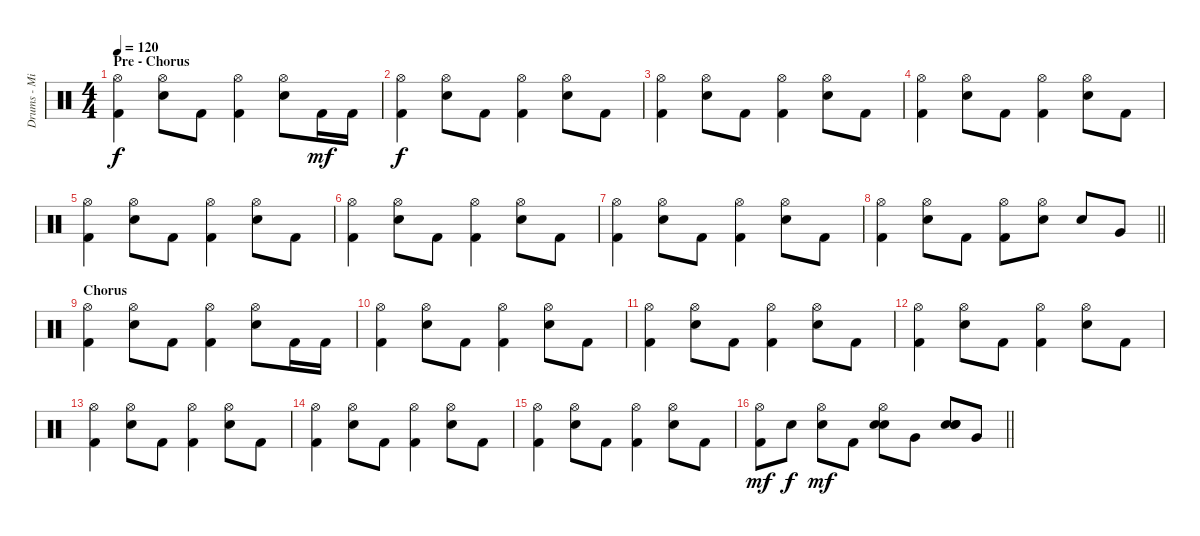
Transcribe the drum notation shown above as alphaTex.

\track ("Drums - Mikko" "Drums - Mi") {instrument percussion}
\staff {score}
\articulation defaults
\ts (4 4)
\section ("" "Pre - Chorus")
\tempo 120
\clef neutral
\ks c
("Hi-Hat (open)" "Kick (hit) 2").4{dy f volume 14} ("Hi-Hat (open)" "Snare (hit) 2").8 "Kick (hit) 2".8 ("Hi-Hat (open)" "Kick (hit) 2").4 ("Hi-Hat (open)" "Snare (hit) 2").8 "Kick (hit) 2".16{dy mf} "Kick (hit) 2".16 |
("Hi-Hat (open)" "Kick (hit) 2").4{dy f} ("Hi-Hat (open)" "Snare (hit) 2").8 "Kick (hit) 2".8 ("Hi-Hat (open)" "Kick (hit) 2").4 ("Hi-Hat (open)" "Snare (hit) 2").8 "Kick (hit) 2".8 |
("Hi-Hat (open)" "Kick (hit) 2").4 ("Hi-Hat (open)" "Snare (hit) 2").8 "Kick (hit) 2".8 ("Hi-Hat (open)" "Kick (hit) 2").4 ("Hi-Hat (open)" "Snare (hit) 2").8 "Kick (hit) 2".8 |
("Hi-Hat (open)" "Kick (hit) 2").4 ("Hi-Hat (open)" "Snare (hit) 2").8 "Kick (hit) 2".8 ("Hi-Hat (open)" "Kick (hit) 2").4 ("Hi-Hat (open)" "Snare (hit) 2").8 "Kick (hit) 2".8 |
("Hi-Hat (open)" "Kick (hit) 2").4 ("Hi-Hat (open)" "Snare (hit) 2").8 "Kick (hit) 2".8 ("Hi-Hat (open)" "Kick (hit) 2").4 ("Hi-Hat (open)" "Snare (hit) 2").8 "Kick (hit) 2".8 |
("Hi-Hat (open)" "Kick (hit) 2").4 ("Hi-Hat (open)" "Snare (hit) 2").8 "Kick (hit) 2".8 ("Hi-Hat (open)" "Kick (hit) 2").4 ("Hi-Hat (open)" "Snare (hit) 2").8 "Kick (hit) 2".8 |
("Hi-Hat (open)" "Kick (hit) 2").4 ("Hi-Hat (open)" "Snare (hit) 2").8 "Kick (hit) 2".8 ("Hi-Hat (open)" "Kick (hit) 2").4 ("Hi-Hat (open)" "Snare (hit) 2").8 "Kick (hit) 2".8 |
\barLineRight lightlight
("Hi-Hat (open)" "Kick (hit) 2").4 ("Hi-Hat (open)" "Snare (hit) 2").8 "Kick (hit) 2".8 ("Hi-Hat (open)" "Kick (hit) 2").8 ("Hi-Hat (open)" "Snare (hit) 2").8 "Snare (hit) 2".8 "Very Low Tom (hit)".8 |
\section ("" "Chorus")
("Hi-Hat (open)" "Kick (hit) 2").4 ("Hi-Hat (open)" "Snare (hit) 2").8 "Kick (hit) 2".8 ("Hi-Hat (open)" "Kick (hit) 2").4 ("Hi-Hat (open)" "Snare (hit) 2").8 "Kick (hit) 2".16 "Kick (hit) 2".16 |
("Hi-Hat (open)" "Kick (hit) 2").4 ("Hi-Hat (open)" "Snare (hit) 2").8 "Kick (hit) 2".8 ("Hi-Hat (open)" "Kick (hit) 2").4 ("Hi-Hat (open)" "Snare (hit) 2").8 "Kick (hit) 2".8 |
("Hi-Hat (open)" "Kick (hit) 2").4 ("Hi-Hat (open)" "Snare (hit) 2").8 "Kick (hit) 2".8 ("Hi-Hat (open)" "Kick (hit) 2").4 ("Hi-Hat (open)" "Snare (hit) 2").8 "Kick (hit) 2".8 |
("Hi-Hat (open)" "Kick (hit) 2").4 ("Hi-Hat (open)" "Snare (hit) 2").8 "Kick (hit) 2".8 ("Hi-Hat (open)" "Kick (hit) 2").4 ("Hi-Hat (open)" "Snare (hit) 2").8 "Kick (hit) 2".8 |
("Hi-Hat (open)" "Kick (hit) 2").4 ("Hi-Hat (open)" "Snare (hit) 2").8 "Kick (hit) 2".8 ("Hi-Hat (open)" "Kick (hit) 2").4 ("Hi-Hat (open)" "Snare (hit) 2").8 "Kick (hit) 2".8 |
("Hi-Hat (open)" "Kick (hit) 2").4 ("Hi-Hat (open)" "Snare (hit) 2").8 "Kick (hit) 2".8 ("Hi-Hat (open)" "Kick (hit) 2").4 ("Hi-Hat (open)" "Snare (hit) 2").8 "Kick (hit) 2".8 |
("Hi-Hat (open)" "Kick (hit) 2").4 ("Hi-Hat (open)" "Snare (hit) 2").8 "Kick (hit) 2".8 ("Hi-Hat (open)" "Kick (hit) 2").4 ("Hi-Hat (open)" "Snare (hit) 2").8 "Kick (hit) 2".8 |
\barLineRight lightlight
("Hi-Hat (open)" "Kick (hit) 2").8{dy mf volume 13} "Snare (hit) 2".8{dy f} ("Hi-Hat (open)" "Snare (hit) 2").8{dy mf} "Kick (hit) 2".8 ("Hi-Hat (open)" "Snare (hit) 2" "Snare (hit) 2").8 "Very Low Tom (hit)".8 ("Snare (hit) 2" "Snare (hit) 2" "Snare (hit) 2").8 "Very Low Tom (hit)".8
